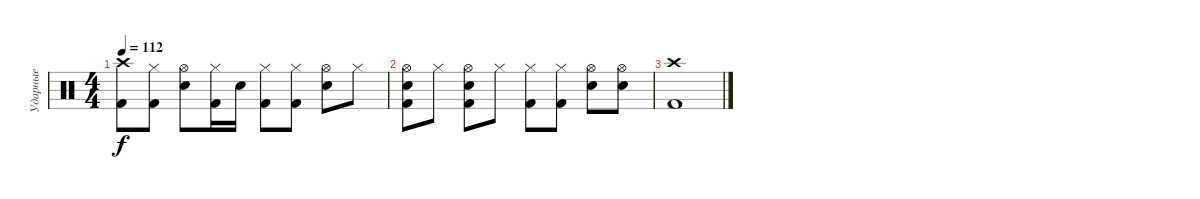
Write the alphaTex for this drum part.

\track ("Ударные" "Ударные") {instrument percussion}
\staff {score}
\articulation defaults
\ts (4 4)
\tempo 112
\clef neutral
\ks c
("Crash high (hit)" "Kick (hit) 2").8{dy f} ("Hi-Hat (closed)" "Kick (hit) 2").8 ("Hi-Hat (open)" "Snare (hit) 2").8 ("Hi-Hat (closed)" "Kick (hit) 2").16 "Snare (hit) 2".16 ("Hi-Hat (closed)" "Kick (hit) 2").8 ("Hi-Hat (closed)" "Kick (hit) 2").8 ("Hi-Hat (open)" "Snare (hit) 2").8 "Hi-Hat (closed)".8 |
("Hi-Hat (open)" "Kick (hit) 2" "Snare (hit) 2").8 "Hi-Hat (closed)".8 ("Hi-Hat (open)" "Snare (hit) 2" "Kick (hit) 2").8 "Hi-Hat (closed)".8 ("Hi-Hat (closed)" "Kick (hit) 2").8 ("Hi-Hat (closed)" "Kick (hit) 2").8 ("Hi-Hat (open)" "Snare (hit) 2").8 ("Hi-Hat (open)" "Snare (hit) 2").8 |
("Crash high (hit)" "Kick (hit) 2").1
